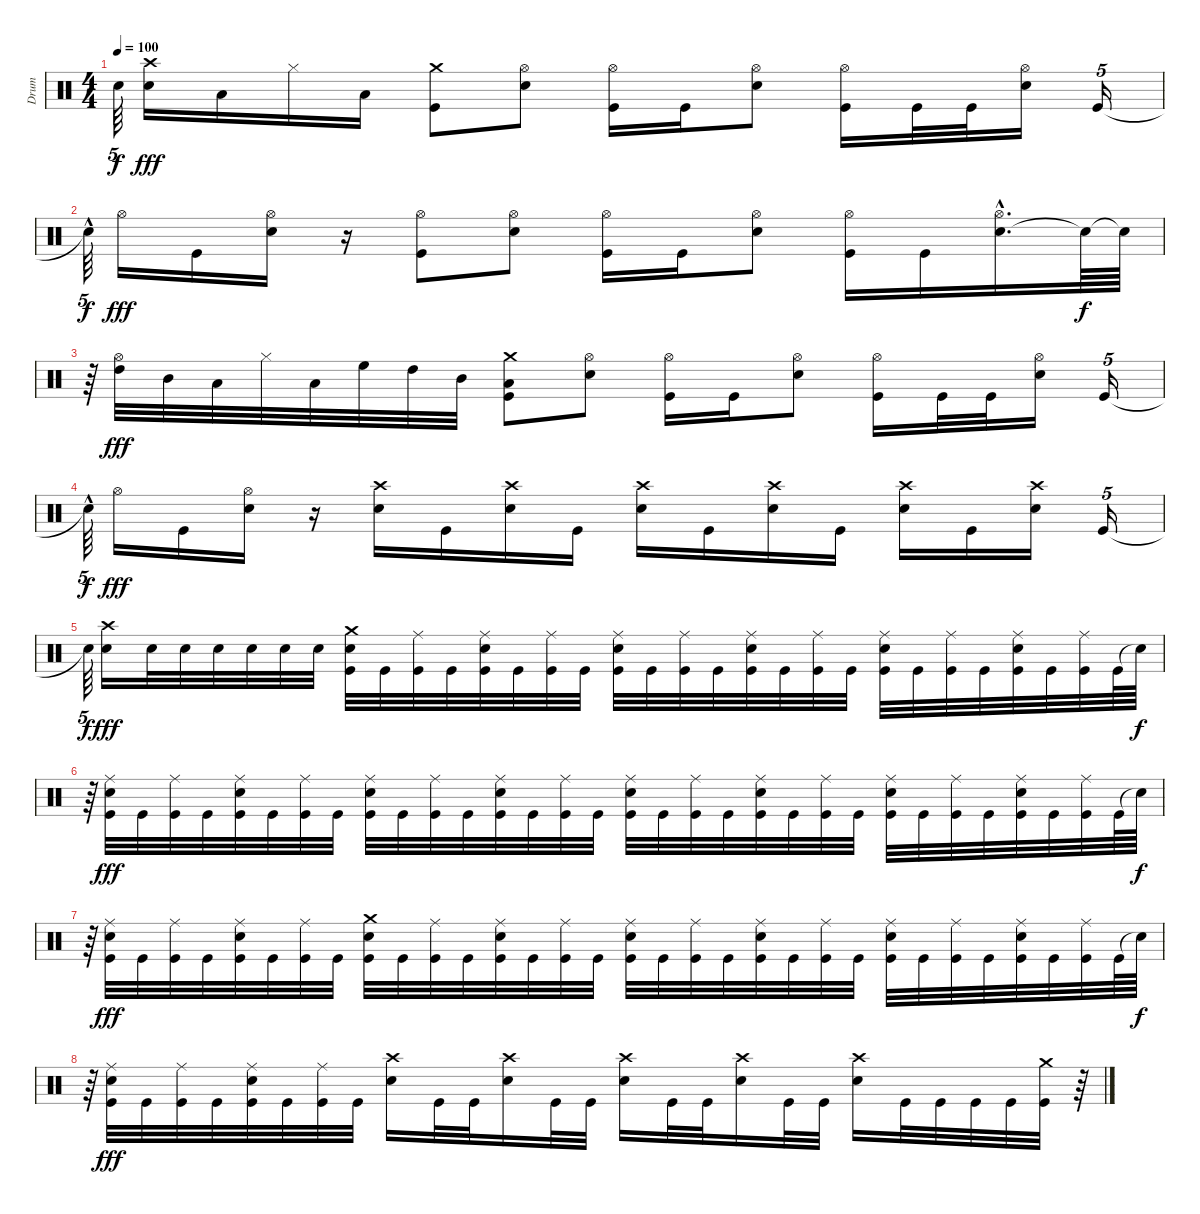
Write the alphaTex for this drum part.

\track ("Drum" "Drum") {instrument percussion}
\staff {score}
\articulation defaults
\ts (4 4)
\tempo 100
\clef neutral
\ks c "Snare (hit)"{t}.64{tu (5 4) dy f}
("Snare (hit) 2" "Crash high (hit)").16{dy fff} "Low Tom (hit)".16 "Hi-Hat (closed)".16 "Low Floor Tom (hit)".16 ("Crash medium (hit)" "Kick (hit)").8 ("Snare (hit) 2" "Hi-Hat (open)").8 ("Kick (hit)" "Hi-Hat (open)").16 "Kick (hit)".16 ("Hi-Hat (open)" "Snare (hit) 2").8 ("Hi-Hat (open)" "Kick (hit)").16 "Kick (hit)".32 "Kick (hit)".32 ("Hi-Hat (open)" "Snare (hit) 2").16 "Kick (hit)".16{tu (5 4)} |
"Snare (hit)"{hac t}.64{tu (5 4) dy f} "Hi-Hat (open)".16{dy fff} "Kick (hit)".16 ("Hi-Hat (open)" "Snare (hit) 2").16 r.16 ("Hi-Hat (open)" "Kick (hit)").8 ("Hi-Hat (open)" "Snare (hit) 2").8 ("Kick (hit)" "Hi-Hat (open)").16 "Kick (hit)".16 ("Snare (hit) 2" "Hi-Hat (open)").8 ("Hi-Hat (open)" "Kick (hit)").16 "Kick (hit)".16 ("Snare (hit) 2"{hac} "Hi-Hat (open)").16{d} "Snare (hit)"{t}.64{dy f} "Snare (hit)"{t}.64 |
r.64{tu (5 4)} ("Hi-Hat (open)" "High Tom (hit)").32{dy fff} "Mid Tom (hit)".32 "Low Tom (hit)".32 "Hi-Hat (closed)".32 "Low Floor Tom (hit)".32 "High Floor Tom (hit)".32 "High Tom (hit)".32 "Mid Tom (hit)".32 ("Kick (hit)" "Low Tom (hit)" "Crash medium (hit)").8 ("Hi-Hat (open)" "Snare (hit) 2").8 ("Kick (hit)" "Hi-Hat (open)").16 "Kick (hit)".16 ("Snare (hit) 2" "Hi-Hat (open)").8 ("Kick (hit)" "Hi-Hat (open)").16 "Kick (hit)".32 "Kick (hit)".32 ("Hi-Hat (open)" "Snare (hit) 2").16 "Kick (hit)".16{tu (5 4)} |
"Snare (hit)"{hac t}.64{tu (5 4) dy f} "Hi-Hat (open)".16{dy fff} "Kick (hit)".16 ("Hi-Hat (open)" "Snare (hit) 2").16 r.16 ("Crash high (hit)" "Snare (hit) 2").16 "Kick (hit)".16 ("Crash high (hit)" "Snare (hit) 2").16 "Kick (hit)".16 ("Snare (hit) 2" "Crash high (hit)").16 "Kick (hit)".16 ("Crash high (hit)" "Snare (hit) 2").16 "Kick (hit)".16 ("Snare (hit) 2" "Crash high (hit)").16 "Kick (hit)".16 ("Crash high (hit)" "Snare (hit) 2").16 "Kick (hit)".16{tu (5 4)} |
"Snare (hit)"{t}.64{tu (5 4) dy f} ("Snare (hit) 2" "Crash high (hit)").16{dy fff} "Snare (hit) 2".32 "Snare (hit) 2".32 "Snare (hit) 2".32 "Snare (hit) 2".32 "Snare (hit) 2".32 "Snare (hit) 2".32 ("Snare (hit) 2" "Crash medium (hit)" "Kick (hit)").32 "Kick (hit)".32 ("Ride (middle)" "Kick (hit)").32 "Kick (hit)".32 ("Snare (hit) 2" "Ride (middle)" "Kick (hit)").32 "Kick (hit)".32 ("Ride (middle)" "Kick (hit)").32 "Kick (hit)".32 ("Snare (hit) 2" "Kick (hit)" "Ride (middle)").32 "Kick (hit)".32 ("Kick (hit)" "Ride (middle)").32 "Kick (hit)".32 ("Snare (hit) 2" "Kick (hit)" "Ride (middle)").32 "Kick (hit)".32 ("Ride (middle)" "Kick (hit)").32 "Kick (hit)".32 ("Snare (hit) 2" "Ride (middle)" "Kick (hit)").32 "Kick (hit)".32 ("Ride (middle)" "Kick (hit)").32 "Kick (hit)".32 ("Snare (hit) 2" "Kick (hit)" "Ride (middle)").32 "Kick (hit)".32 ("Kick (hit)" "Ride (middle)").32 "Kick (hit)".64 "Snare (hit)"{t}.64{dy f} |
r.64{tu (5 4)} ("Snare (hit) 2" "Ride (middle)" "Kick (hit)").32{dy fff} "Kick (hit)".32 ("Kick (hit)" "Ride (middle)").32 "Kick (hit)".32 ("Snare (hit) 2" "Kick (hit)" "Ride (middle)").32 "Kick (hit)".32 ("Ride (middle)" "Kick (hit)").32 "Kick (hit)".32 ("Snare (hit) 2" "Ride (middle)" "Kick (hit)").32 "Kick (hit)".32 ("Ride (middle)" "Kick (hit)").32 "Kick (hit)".32 ("Snare (hit) 2" "Kick (hit)" "Ride (middle)").32 "Kick (hit)".32 ("Kick (hit)" "Ride (middle)").32 "Kick (hit)".32 ("Snare (hit) 2" "Ride (middle)" "Kick (hit)").32 "Kick (hit)".32 ("Kick (hit)" "Ride (middle)").32 "Kick (hit)".32 ("Snare (hit) 2" "Kick (hit)" "Ride (middle)").32 "Kick (hit)".32 ("Ride (middle)" "Kick (hit)").32 "Kick (hit)".32 ("Snare (hit) 2" "Kick (hit)" "Ride (middle)").32 "Kick (hit)".32 ("Kick (hit)" "Ride (middle)").32 "Kick (hit)".32 ("Snare (hit) 2" "Kick (hit)" "Ride (middle)").32 "Kick (hit)".32 ("Ride (middle)" "Kick (hit)").32 "Kick (hit)".64 "Snare (hit)"{t}.64{dy f} |
r.64{tu (5 4)} ("Snare (hit) 2" "Kick (hit)" "Ride (middle)").32{dy fff} "Kick (hit)".32 ("Ride (middle)" "Kick (hit)").32 "Kick (hit)".32 ("Snare (hit) 2" "Ride (middle)" "Kick (hit)").32 "Kick (hit)".32 ("Kick (hit)" "Ride (middle)").32 "Kick (hit)".32 ("Snare (hit) 2" "Crash medium (hit)" "Kick (hit)").32 "Kick (hit)".32 ("Ride (middle)" "Kick (hit)").32 "Kick (hit)".32 ("Snare (hit) 2" "Ride (middle)" "Kick (hit)").32 "Kick (hit)".32 ("Kick (hit)" "Ride (middle)").32 "Kick (hit)".32 ("Snare (hit) 2" "Kick (hit)" "Ride (middle)").32 "Kick (hit)".32 ("Kick (hit)" "Ride (middle)").32 "Kick (hit)".32 ("Snare (hit) 2" "Ride (middle)" "Kick (hit)").32 "Kick (hit)".32 ("Ride (middle)" "Kick (hit)").32 "Kick (hit)".32 ("Snare (hit) 2" "Ride (middle)" "Kick (hit)").32 "Kick (hit)".32 ("Ride (middle)" "Kick (hit)").32 "Kick (hit)".32 ("Snare (hit) 2" "Kick (hit)" "Ride (middle)").32 "Kick (hit)".32 ("Ride (middle)" "Kick (hit)").32 "Kick (hit)".64 "Snare (hit)"{t}.64{dy f} |
r.64{tu (5 4)} ("Snare (hit) 2" "Kick (hit)" "Ride (middle)").32{dy fff} "Kick (hit)".32 ("Ride (middle)" "Kick (hit)").32 "Kick (hit)".32 ("Snare (hit) 2" "Kick (hit)" "Ride (middle)").32 "Kick (hit)".32 ("Ride (middle)" "Kick (hit)").32 "Kick (hit)".32 ("Crash high (hit)" "Snare (hit) 2").16 "Kick (hit)".32 "Kick (hit)".32 ("Snare (hit) 2" "Crash high (hit)").16 "Kick (hit)".32 "Kick (hit)".32 ("Crash high (hit)" "Snare (hit) 2").16 "Kick (hit)".32 "Kick (hit)".32 ("Crash high (hit)" "Snare (hit) 2").16 "Kick (hit)".32 "Kick (hit)".32 ("Crash high (hit)" "Snare (hit) 2").16 "Kick (hit)".32 "Kick (hit)".32 "Kick (hit)".32 "Kick (hit)".32 ("Kick (hit)" "Crash medium (hit)").32 r.64
